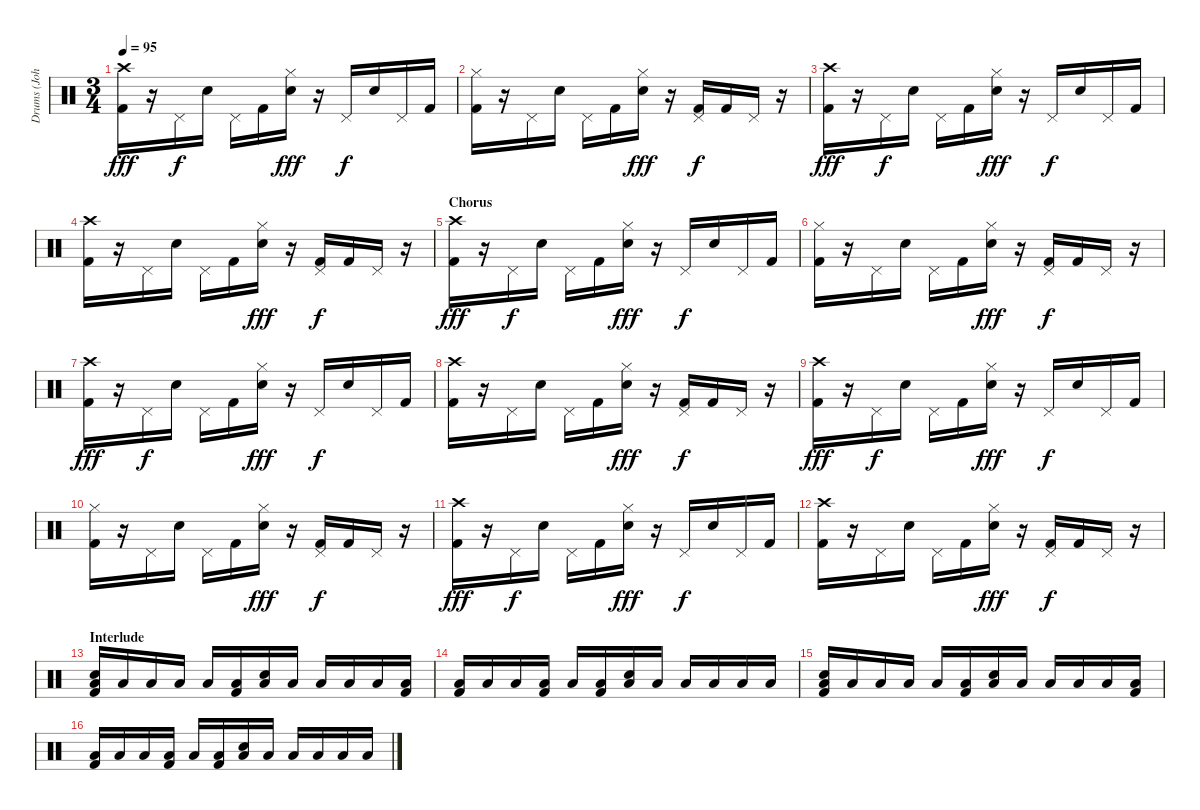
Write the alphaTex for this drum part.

\track ("Drums (John Otto)" "Drums (Joh") {instrument percussion}
\staff {score}
\articulation defaults
\ts (3 4)
\tempo 95
\clef neutral
\ks c
("Crash high (hit)" "Kick (hit) 2").16{dy fff} r.16 "Pedal Hi-Hat (hit)".16{dy f} "Electric Snare (hit)".16 "Pedal Hi-Hat (hit)".16 "Kick (hit) 2".16 ("Hi-Hat (closed)" "Electric Snare (hit)").16{dy fff} r.16 "Pedal Hi-Hat (hit)".16{dy f} "Electric Snare (hit)".16 "Pedal Hi-Hat (hit)".16 "Kick (hit) 2".16 |
("Hi-Hat (closed)" "Kick (hit) 2").16 r.16 "Pedal Hi-Hat (hit)".16 "Electric Snare (hit)".16 "Pedal Hi-Hat (hit)".16 "Kick (hit) 2".16 ("Hi-Hat (closed)" "Electric Snare (hit)").16{dy fff} r.16 ("Pedal Hi-Hat (hit)" "Kick (hit) 2").16{dy f} "Kick (hit) 2".16 "Pedal Hi-Hat (hit)".16 r.16 |
("Crash high (hit)" "Kick (hit) 2").16{dy fff} r.16 "Pedal Hi-Hat (hit)".16{dy f} "Electric Snare (hit)".16 "Pedal Hi-Hat (hit)".16 "Kick (hit) 2".16 ("Hi-Hat (closed)" "Electric Snare (hit)").16{dy fff} r.16 "Pedal Hi-Hat (hit)".16{dy f} "Electric Snare (hit)".16 "Pedal Hi-Hat (hit)".16 "Kick (hit) 2".16 |
("Crash high (hit)" "Kick (hit) 2").16 r.16 "Pedal Hi-Hat (hit)".16 "Electric Snare (hit)".16 "Pedal Hi-Hat (hit)".16 "Kick (hit) 2".16 ("Hi-Hat (closed)" "Electric Snare (hit)").16{dy fff} r.16 ("Pedal Hi-Hat (hit)" "Kick (hit) 2").16{dy f} "Kick (hit) 2".16 "Pedal Hi-Hat (hit)".16 r.16 |
\section ("" "Chorus")
("Crash high (hit)" "Kick (hit) 2").16{dy fff} r.16 "Pedal Hi-Hat (hit)".16{dy f} "Electric Snare (hit)".16 "Pedal Hi-Hat (hit)".16 "Kick (hit) 2".16 ("Hi-Hat (closed)" "Electric Snare (hit)").16{dy fff} r.16 "Pedal Hi-Hat (hit)".16{dy f} "Electric Snare (hit)".16 "Pedal Hi-Hat (hit)".16 "Kick (hit) 2".16 |
("Hi-Hat (closed)" "Kick (hit) 2").16 r.16 "Pedal Hi-Hat (hit)".16 "Electric Snare (hit)".16 "Pedal Hi-Hat (hit)".16 "Kick (hit) 2".16 ("Hi-Hat (closed)" "Electric Snare (hit)").16{dy fff} r.16 ("Pedal Hi-Hat (hit)" "Kick (hit) 2").16{dy f} "Kick (hit) 2".16 "Pedal Hi-Hat (hit)".16 r.16 |
("Crash high (hit)" "Kick (hit) 2").16{dy fff} r.16 "Pedal Hi-Hat (hit)".16{dy f} "Electric Snare (hit)".16 "Pedal Hi-Hat (hit)".16 "Kick (hit) 2".16 ("Hi-Hat (closed)" "Electric Snare (hit)").16{dy fff} r.16 "Pedal Hi-Hat (hit)".16{dy f} "Electric Snare (hit)".16 "Pedal Hi-Hat (hit)".16 "Kick (hit) 2".16 |
("Crash high (hit)" "Kick (hit) 2").16 r.16 "Pedal Hi-Hat (hit)".16 "Electric Snare (hit)".16 "Pedal Hi-Hat (hit)".16 "Kick (hit) 2".16 ("Hi-Hat (closed)" "Electric Snare (hit)").16{dy fff} r.16 ("Pedal Hi-Hat (hit)" "Kick (hit) 2").16{dy f} "Kick (hit) 2".16 "Pedal Hi-Hat (hit)".16 r.16 |
("Crash high (hit)" "Kick (hit) 2").16{dy fff} r.16 "Pedal Hi-Hat (hit)".16{dy f} "Electric Snare (hit)".16 "Pedal Hi-Hat (hit)".16 "Kick (hit) 2".16 ("Hi-Hat (closed)" "Electric Snare (hit)").16{dy fff} r.16 "Pedal Hi-Hat (hit)".16{dy f} "Electric Snare (hit)".16 "Pedal Hi-Hat (hit)".16 "Kick (hit) 2".16 |
("Hi-Hat (closed)" "Kick (hit) 2").16 r.16 "Pedal Hi-Hat (hit)".16 "Electric Snare (hit)".16 "Pedal Hi-Hat (hit)".16 "Kick (hit) 2".16 ("Hi-Hat (closed)" "Electric Snare (hit)").16{dy fff} r.16 ("Pedal Hi-Hat (hit)" "Kick (hit) 2").16{dy f} "Kick (hit) 2".16 "Pedal Hi-Hat (hit)".16 r.16 |
("Crash high (hit)" "Kick (hit) 2").16{dy fff} r.16 "Pedal Hi-Hat (hit)".16{dy f} "Electric Snare (hit)".16 "Pedal Hi-Hat (hit)".16 "Kick (hit) 2".16 ("Hi-Hat (closed)" "Electric Snare (hit)").16{dy fff} r.16 "Pedal Hi-Hat (hit)".16{dy f} "Electric Snare (hit)".16 "Pedal Hi-Hat (hit)".16 "Kick (hit) 2".16 |
("Crash high (hit)" "Kick (hit) 2").16 r.16 "Pedal Hi-Hat (hit)".16 "Electric Snare (hit)".16 "Pedal Hi-Hat (hit)".16 "Kick (hit) 2".16 ("Hi-Hat (closed)" "Electric Snare (hit)").16{dy fff} r.16 ("Pedal Hi-Hat (hit)" "Kick (hit) 2").16{dy f} "Kick (hit) 2".16 "Pedal Hi-Hat (hit)".16 r.16 |
\section ("" "Interlude")
("Electric Snare (hit)" "Low Tom (hit)" "Kick (hit) 2").16 "Low Tom (hit)".16 "Low Tom (hit)".16 "Low Tom (hit)".16 "Low Tom (hit)".16 ("Low Tom (hit)" "Kick (hit) 2").16 ("Low Tom (hit)" "Electric Snare (hit)").16 "Low Tom (hit)".16 "Low Tom (hit)".16 "Low Tom (hit)".16 "Low Tom (hit)".16 ("Low Tom (hit)" "Kick (hit) 2").16 |
("Low Tom (hit)" "Kick (hit) 2").16 "Low Tom (hit)".16 "Low Tom (hit)".16 ("Low Tom (hit)" "Kick (hit) 2").16 "Low Tom (hit)".16 ("Low Tom (hit)" "Kick (hit) 2").16 ("Low Tom (hit)" "Electric Snare (hit)").16 "Low Tom (hit)".16 "Low Tom (hit)".16 "Low Tom (hit)".16 "Low Tom (hit)".16 "Low Tom (hit)".16 |
("Electric Snare (hit)" "Low Tom (hit)" "Kick (hit) 2").16 "Low Tom (hit)".16 "Low Tom (hit)".16 "Low Tom (hit)".16 "Low Tom (hit)".16 ("Low Tom (hit)" "Kick (hit) 2").16 ("Low Tom (hit)" "Electric Snare (hit)").16 "Low Tom (hit)".16 "Low Tom (hit)".16 "Low Tom (hit)".16 "Low Tom (hit)".16 ("Low Tom (hit)" "Kick (hit) 2").16 |
("Low Tom (hit)" "Kick (hit) 2").16 "Low Tom (hit)".16 "Low Tom (hit)".16 ("Low Tom (hit)" "Kick (hit) 2").16 "Low Tom (hit)".16 ("Low Tom (hit)" "Kick (hit) 2").16 ("Low Tom (hit)" "Electric Snare (hit)").16 "Low Tom (hit)".16 "Low Tom (hit)".16 "Low Tom (hit)".16 "Low Tom (hit)".16 "Low Tom (hit)".16
